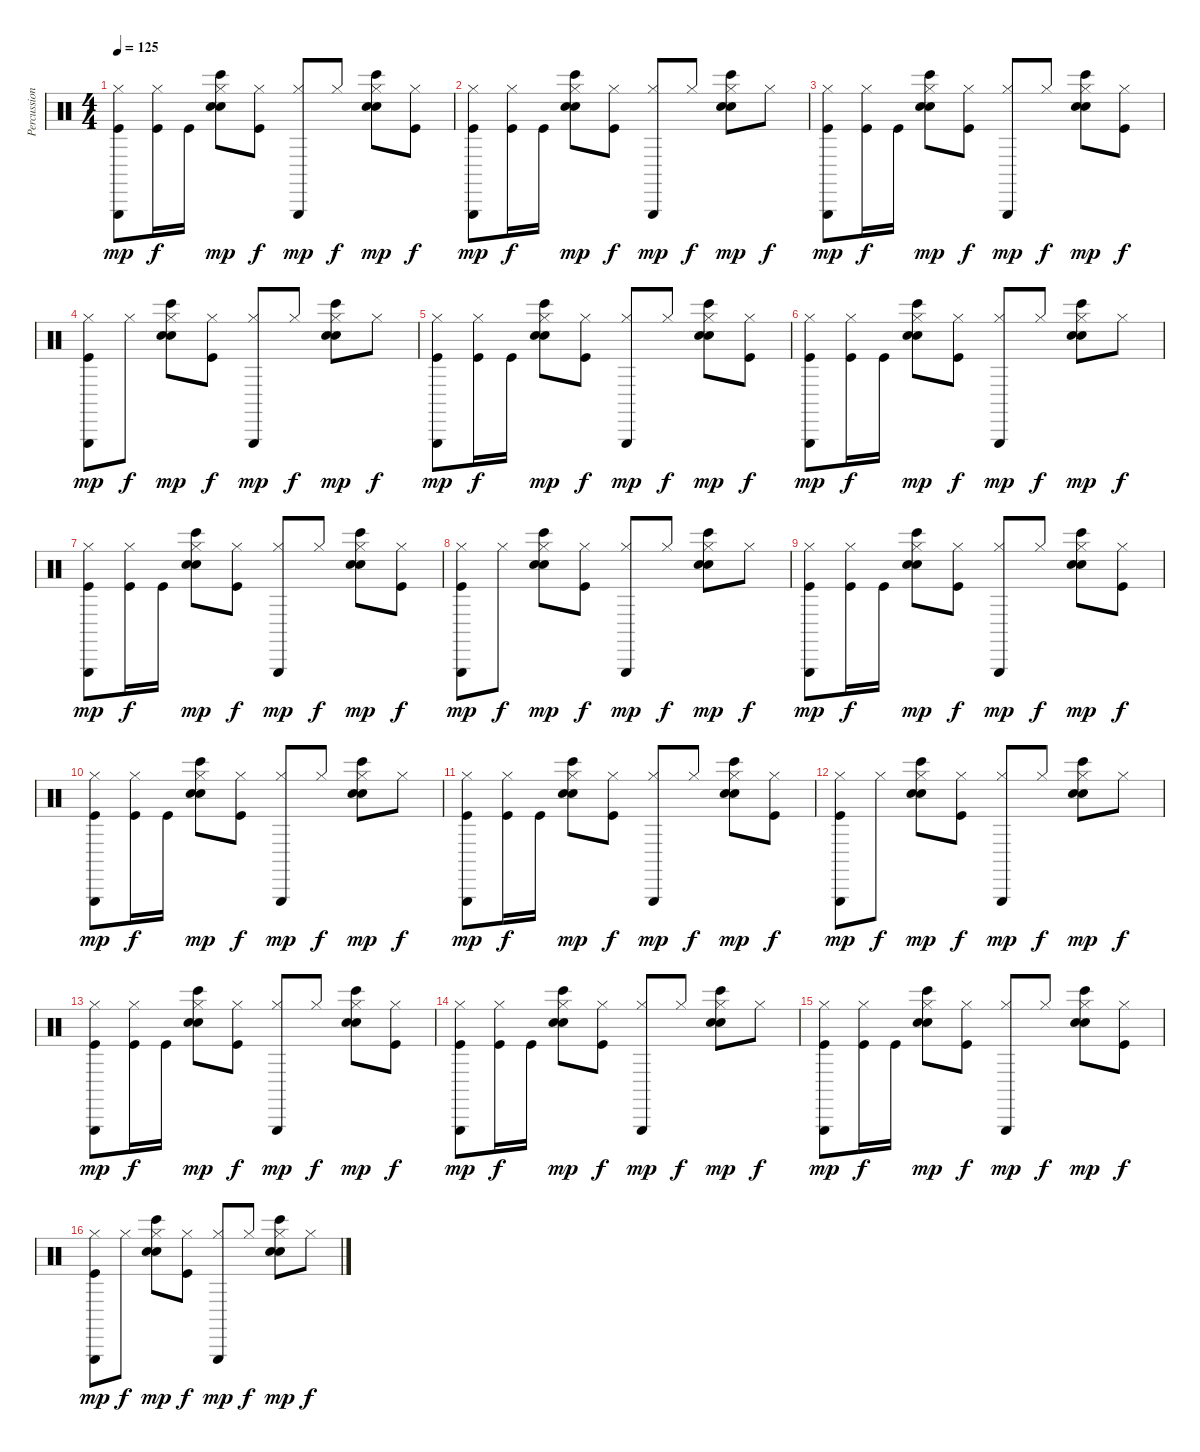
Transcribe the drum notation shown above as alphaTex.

\track ("Percussion" "Percussion") {instrument percussion}
\staff {score}
\articulation defaults
\ts (4 4)
\tempo 125
\clef neutral
\ks c
("Hi-Hat (closed)" "Triangle (hit)" "Kick (hit)").8{dy mp} ("Hi-Hat (closed)" "Kick (hit)").16{dy f} "Kick (hit)".16 ("Hi-Hat (closed)" "Electric Snare (hit)" "Bongo High (hit)" "Electric Snare (hit)").8{dy mp} ("Hi-Hat (closed)" "Kick (hit)").8{dy f} ("Hi-Hat (closed)" "Triangle (hit)").8{dy mp} "Hi-Hat (closed)".8{dy f} ("Hi-Hat (closed)" "Electric Snare (hit)" "Bongo High (hit)" "Electric Snare (hit)").8{dy mp} ("Hi-Hat (closed)" "Kick (hit)").8{dy f} |
("Hi-Hat (closed)" "Triangle (hit)" "Kick (hit)").8{dy mp} ("Hi-Hat (closed)" "Kick (hit)").16{dy f} "Kick (hit)".16 ("Hi-Hat (closed)" "Electric Snare (hit)" "Bongo High (hit)" "Electric Snare (hit)").8{dy mp} ("Hi-Hat (closed)" "Kick (hit)").8{dy f} ("Hi-Hat (closed)" "Triangle (hit)").8{dy mp} "Hi-Hat (closed)".8{dy f} ("Hi-Hat (closed)" "Electric Snare (hit)" "Bongo High (hit)" "Electric Snare (hit)").8{dy mp} "Hi-Hat (closed)".8{dy f} |
("Hi-Hat (closed)" "Triangle (hit)" "Kick (hit)").8{dy mp} ("Hi-Hat (closed)" "Kick (hit)").16{dy f} "Kick (hit)".16 ("Hi-Hat (closed)" "Electric Snare (hit)" "Bongo High (hit)" "Electric Snare (hit)").8{dy mp} ("Hi-Hat (closed)" "Kick (hit)").8{dy f} ("Hi-Hat (closed)" "Triangle (hit)").8{dy mp} "Hi-Hat (closed)".8{dy f} ("Hi-Hat (closed)" "Electric Snare (hit)" "Bongo High (hit)" "Electric Snare (hit)").8{dy mp} ("Hi-Hat (closed)" "Kick (hit)").8{dy f} |
("Hi-Hat (closed)" "Triangle (hit)" "Kick (hit)").8{dy mp} "Hi-Hat (closed)".8{dy f} ("Hi-Hat (closed)" "Electric Snare (hit)" "Bongo High (hit)" "Electric Snare (hit)").8{dy mp} ("Hi-Hat (closed)" "Kick (hit)").8{dy f} ("Hi-Hat (closed)" "Triangle (hit)").8{dy mp} "Hi-Hat (closed)".8{dy f} ("Hi-Hat (closed)" "Electric Snare (hit)" "Bongo High (hit)" "Electric Snare (hit)").8{dy mp} "Hi-Hat (closed)".8{dy f} |
("Hi-Hat (closed)" "Triangle (hit)" "Kick (hit)").8{dy mp} ("Hi-Hat (closed)" "Kick (hit)").16{dy f} "Kick (hit)".16 ("Hi-Hat (closed)" "Electric Snare (hit)" "Bongo High (hit)" "Electric Snare (hit)").8{dy mp} ("Hi-Hat (closed)" "Kick (hit)").8{dy f} ("Hi-Hat (closed)" "Triangle (hit)").8{dy mp} "Hi-Hat (closed)".8{dy f} ("Hi-Hat (closed)" "Electric Snare (hit)" "Bongo High (hit)" "Electric Snare (hit)").8{dy mp} ("Hi-Hat (closed)" "Kick (hit)").8{dy f} |
("Hi-Hat (closed)" "Triangle (hit)" "Kick (hit)").8{dy mp} ("Hi-Hat (closed)" "Kick (hit)").16{dy f} "Kick (hit)".16 ("Hi-Hat (closed)" "Electric Snare (hit)" "Bongo High (hit)" "Electric Snare (hit)").8{dy mp} ("Hi-Hat (closed)" "Kick (hit)").8{dy f} ("Hi-Hat (closed)" "Triangle (hit)").8{dy mp} "Hi-Hat (closed)".8{dy f} ("Hi-Hat (closed)" "Electric Snare (hit)" "Bongo High (hit)" "Electric Snare (hit)").8{dy mp} "Hi-Hat (closed)".8{dy f} |
("Hi-Hat (closed)" "Triangle (hit)" "Kick (hit)").8{dy mp} ("Hi-Hat (closed)" "Kick (hit)").16{dy f} "Kick (hit)".16 ("Hi-Hat (closed)" "Electric Snare (hit)" "Bongo High (hit)" "Electric Snare (hit)").8{dy mp} ("Hi-Hat (closed)" "Kick (hit)").8{dy f} ("Hi-Hat (closed)" "Triangle (hit)").8{dy mp} "Hi-Hat (closed)".8{dy f} ("Hi-Hat (closed)" "Electric Snare (hit)" "Bongo High (hit)" "Electric Snare (hit)").8{dy mp} ("Hi-Hat (closed)" "Kick (hit)").8{dy f} |
("Hi-Hat (closed)" "Triangle (hit)" "Kick (hit)").8{dy mp} "Hi-Hat (closed)".8{dy f} ("Hi-Hat (closed)" "Electric Snare (hit)" "Bongo High (hit)" "Electric Snare (hit)").8{dy mp} ("Hi-Hat (closed)" "Kick (hit)").8{dy f} ("Hi-Hat (closed)" "Triangle (hit)").8{dy mp} "Hi-Hat (closed)".8{dy f} ("Hi-Hat (closed)" "Electric Snare (hit)" "Bongo High (hit)" "Electric Snare (hit)").8{dy mp} "Hi-Hat (closed)".8{dy f} |
("Hi-Hat (closed)" "Triangle (hit)" "Kick (hit)").8{dy mp} ("Hi-Hat (closed)" "Kick (hit)").16{dy f} "Kick (hit)".16 ("Hi-Hat (closed)" "Electric Snare (hit)" "Bongo High (hit)" "Electric Snare (hit)").8{dy mp} ("Hi-Hat (closed)" "Kick (hit)").8{dy f} ("Hi-Hat (closed)" "Triangle (hit)").8{dy mp} "Hi-Hat (closed)".8{dy f} ("Hi-Hat (closed)" "Electric Snare (hit)" "Bongo High (hit)" "Electric Snare (hit)").8{dy mp} ("Hi-Hat (closed)" "Kick (hit)").8{dy f} |
("Hi-Hat (closed)" "Triangle (hit)" "Kick (hit)").8{dy mp} ("Hi-Hat (closed)" "Kick (hit)").16{dy f} "Kick (hit)".16 ("Hi-Hat (closed)" "Electric Snare (hit)" "Bongo High (hit)" "Electric Snare (hit)").8{dy mp} ("Hi-Hat (closed)" "Kick (hit)").8{dy f} ("Hi-Hat (closed)" "Triangle (hit)").8{dy mp} "Hi-Hat (closed)".8{dy f} ("Hi-Hat (closed)" "Electric Snare (hit)" "Bongo High (hit)" "Electric Snare (hit)").8{dy mp} "Hi-Hat (closed)".8{dy f} |
("Hi-Hat (closed)" "Triangle (hit)" "Kick (hit)").8{dy mp} ("Hi-Hat (closed)" "Kick (hit)").16{dy f} "Kick (hit)".16 ("Hi-Hat (closed)" "Electric Snare (hit)" "Bongo High (hit)" "Electric Snare (hit)").8{dy mp} ("Hi-Hat (closed)" "Kick (hit)").8{dy f} ("Hi-Hat (closed)" "Triangle (hit)").8{dy mp} "Hi-Hat (closed)".8{dy f} ("Hi-Hat (closed)" "Electric Snare (hit)" "Bongo High (hit)" "Electric Snare (hit)").8{dy mp} ("Hi-Hat (closed)" "Kick (hit)").8{dy f} |
("Hi-Hat (closed)" "Triangle (hit)" "Kick (hit)").8{dy mp} "Hi-Hat (closed)".8{dy f} ("Hi-Hat (closed)" "Electric Snare (hit)" "Bongo High (hit)" "Electric Snare (hit)").8{dy mp} ("Hi-Hat (closed)" "Kick (hit)").8{dy f} ("Hi-Hat (closed)" "Triangle (hit)").8{dy mp} "Hi-Hat (closed)".8{dy f} ("Hi-Hat (closed)" "Electric Snare (hit)" "Bongo High (hit)" "Electric Snare (hit)").8{dy mp} "Hi-Hat (closed)".8{dy f} |
("Hi-Hat (closed)" "Triangle (hit)" "Kick (hit)").8{dy mp} ("Hi-Hat (closed)" "Kick (hit)").16{dy f} "Kick (hit)".16 ("Hi-Hat (closed)" "Electric Snare (hit)" "Bongo High (hit)" "Electric Snare (hit)").8{dy mp} ("Hi-Hat (closed)" "Kick (hit)").8{dy f} ("Hi-Hat (closed)" "Triangle (hit)").8{dy mp} "Hi-Hat (closed)".8{dy f} ("Hi-Hat (closed)" "Electric Snare (hit)" "Bongo High (hit)" "Electric Snare (hit)").8{dy mp} ("Hi-Hat (closed)" "Kick (hit)").8{dy f} |
("Hi-Hat (closed)" "Triangle (hit)" "Kick (hit)").8{dy mp} ("Hi-Hat (closed)" "Kick (hit)").16{dy f} "Kick (hit)".16 ("Hi-Hat (closed)" "Electric Snare (hit)" "Bongo High (hit)" "Electric Snare (hit)").8{dy mp} ("Hi-Hat (closed)" "Kick (hit)").8{dy f} ("Hi-Hat (closed)" "Triangle (hit)").8{dy mp} "Hi-Hat (closed)".8{dy f} ("Hi-Hat (closed)" "Electric Snare (hit)" "Bongo High (hit)" "Electric Snare (hit)").8{dy mp} "Hi-Hat (closed)".8{dy f} |
("Hi-Hat (closed)" "Triangle (hit)" "Kick (hit)").8{dy mp} ("Hi-Hat (closed)" "Kick (hit)").16{dy f} "Kick (hit)".16 ("Hi-Hat (closed)" "Electric Snare (hit)" "Bongo High (hit)" "Electric Snare (hit)").8{dy mp} ("Hi-Hat (closed)" "Kick (hit)").8{dy f} ("Hi-Hat (closed)" "Triangle (hit)").8{dy mp} "Hi-Hat (closed)".8{dy f} ("Hi-Hat (closed)" "Electric Snare (hit)" "Bongo High (hit)" "Electric Snare (hit)").8{dy mp} ("Hi-Hat (closed)" "Kick (hit)").8{dy f} |
("Hi-Hat (closed)" "Triangle (hit)" "Kick (hit)").8{dy mp} "Hi-Hat (closed)".8{dy f} ("Hi-Hat (closed)" "Electric Snare (hit)" "Bongo High (hit)" "Electric Snare (hit)").8{dy mp} ("Hi-Hat (closed)" "Kick (hit)").8{dy f} ("Hi-Hat (closed)" "Triangle (hit)").8{dy mp} "Hi-Hat (closed)".8{dy f} ("Hi-Hat (closed)" "Electric Snare (hit)" "Bongo High (hit)" "Electric Snare (hit)").8{dy mp} "Hi-Hat (closed)".8{dy f}
